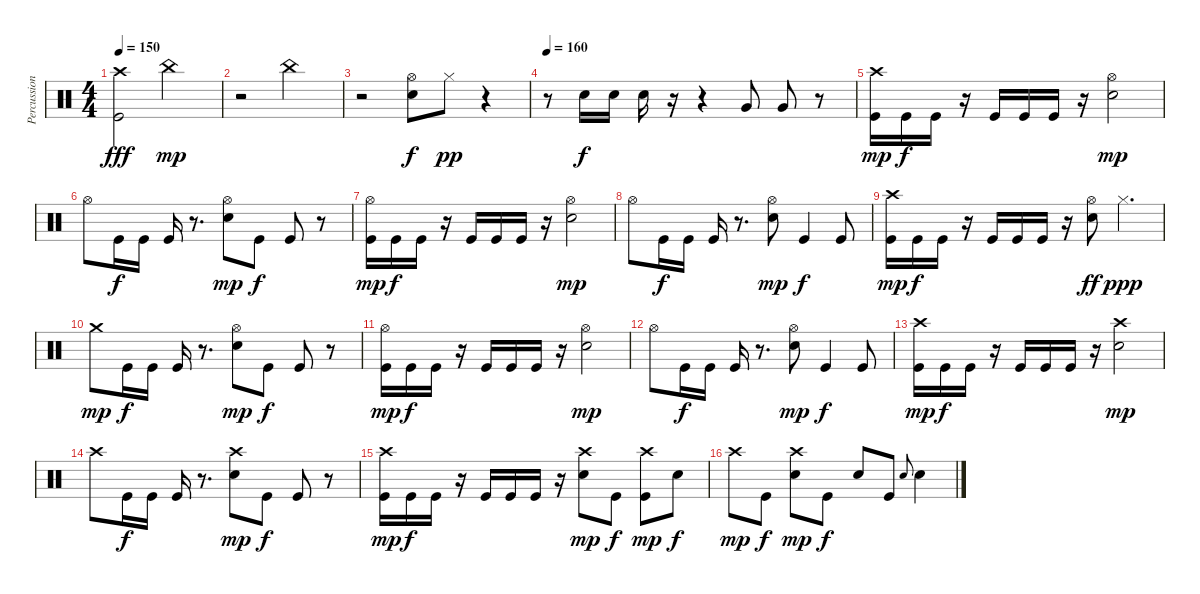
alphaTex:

\track ("Percussion" "Percussion") {instrument percussion}
\staff {score}
\articulation defaults
\ts (4 4)
\tempo 150
\clef neutral
\ks c
("Crash high (hit)" "Kick (hit)").2{dy fff} "China (hit)".2{dy mp} |
r.2 "China (hit)".2 |
r.2 ("Hi-Hat (open)" "Electric Snare (hit)").8{dy f} "Hi-Hat (closed)".8{dy pp} r.4 |
\tempo 160
r.8 "Electric Snare (hit)".16{dy f} "Electric Snare (hit)".16 "Electric Snare (hit)".16 r.16 r.4 "Very Low Tom (hit)".8 "Very Low Tom (hit)".8 r.8 |
("Crash high (hit)" "Kick (hit)").16{dy mp} "Kick (hit)".16{dy f} "Kick (hit)".16 r.16 "Kick (hit)".16 "Kick (hit)".16 "Kick (hit)".16 r.16 ("Hi-Hat (open)" "Electric Snare (hit)").2{dy mp} |
"Hi-Hat (open)".8 "Kick (hit)".16{dy f} "Kick (hit)".16 "Kick (hit)".16 r.8{d} ("Hi-Hat (open)" "Electric Snare (hit)").8{dy mp} "Kick (hit)".8{dy f} "Kick (hit)".8 r.8 |
("Hi-Hat (open)" "Kick (hit)").16{dy mp} "Kick (hit)".16{dy f} "Kick (hit)".16 r.16 "Kick (hit)".16 "Kick (hit)".16 "Kick (hit)".16 r.16 ("Hi-Hat (open)" "Electric Snare (hit)").2{dy mp} |
"Hi-Hat (open)".8 "Kick (hit)".16{dy f} "Kick (hit)".16 "Kick (hit)".16 r.8{d} ("Hi-Hat (open)" "Electric Snare (hit)").8{dy mp} "Kick (hit)".4{dy f} "Kick (hit)".8 |
("Crash high (hit)" "Kick (hit)").16{dy mp} "Kick (hit)".16{dy f} "Kick (hit)".16 r.16 "Kick (hit)".16 "Kick (hit)".16 "Kick (hit)".16 r.16 ("Hi-Hat (open)" "Electric Snare (hit)").8{dy ff} "Hi-Hat (closed)".4{d dy ppp} |
"Crash medium (hit)".8{dy mp} "Kick (hit)".16{dy f} "Kick (hit)".16 "Kick (hit)".16 r.8{d} ("Hi-Hat (open)" "Electric Snare (hit)").8{dy mp} "Kick (hit)".8{dy f} "Kick (hit)".8 r.8 |
("Hi-Hat (open)" "Kick (hit)").16{dy mp} "Kick (hit)".16{dy f} "Kick (hit)".16 r.16 "Kick (hit)".16 "Kick (hit)".16 "Kick (hit)".16 r.16 ("Hi-Hat (open)" "Electric Snare (hit)").2{dy mp} |
"Hi-Hat (open)".8 "Kick (hit)".16{dy f} "Kick (hit)".16 "Kick (hit)".16 r.8{d} ("Hi-Hat (open)" "Electric Snare (hit)").8{dy mp} "Kick (hit)".4{dy f} "Kick (hit)".8 |
("Crash high (hit)" "Kick (hit)").16{dy mp} "Kick (hit)".16{dy f} "Kick (hit)".16 r.16 "Kick (hit)".16 "Kick (hit)".16 "Kick (hit)".16 r.16 ("Crash high (hit)" "Electric Snare (hit)").2{dy mp} |
"Crash high (hit)".8 "Kick (hit)".16{dy f} "Kick (hit)".16 "Kick (hit)".16 r.8{d} ("Crash high (hit)" "Electric Snare (hit)").8{dy mp} "Kick (hit)".8{dy f} "Kick (hit)".8 r.8 |
("Crash high (hit)" "Kick (hit)").16{dy mp} "Kick (hit)".16{dy f} "Kick (hit)".16 r.16 "Kick (hit)".16 "Kick (hit)".16 "Kick (hit)".16 r.16 ("Crash high (hit)" "Electric Snare (hit)").8{dy mp} "Kick (hit)".8{dy f} ("Crash high (hit)" "Kick (hit)").8{dy mp} "Electric Snare (hit)".8{dy f} |
"Crash high (hit)".8{dy mp} "Kick (hit)".8{dy f} ("Crash high (hit)" "Electric Snare (hit)").8{dy mp} "Kick (hit)".8{dy f} "Electric Snare (hit)".8 "Kick (hit)".8 "Electric Snare (hit)".8{gr onbeat} "Electric Snare (hit)".4
